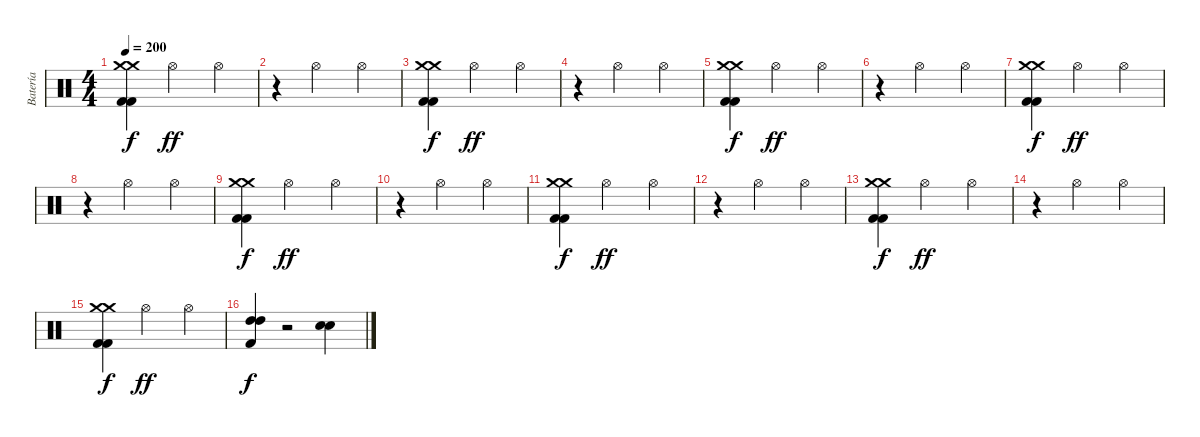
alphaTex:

\track ("Batería" "Batería") {instrument percussion}
\staff {score}
\articulation defaults
\ts (4 4)
\tempo 200
\clef neutral
\ks c
("Crash medium (hit)" "Crash medium (hit)" "Kick (hit) 2" "Kick (hit) 2").4{dy f} "Hi-Hat (open)".2{dy ff} "Hi-Hat (open)".4 |
r.4 "Hi-Hat (open)".2 "Hi-Hat (open)".4 |
("Crash medium (hit)" "Crash medium (hit)" "Kick (hit) 2" "Kick (hit) 2").4{dy f} "Hi-Hat (open)".2{dy ff} "Hi-Hat (open)".4 |
r.4 "Hi-Hat (open)".2 "Hi-Hat (open)".4 |
("Crash medium (hit)" "Crash medium (hit)" "Kick (hit) 2" "Kick (hit) 2").4{dy f} "Hi-Hat (open)".2{dy ff} "Hi-Hat (open)".4 |
r.4 "Hi-Hat (open)".2 "Hi-Hat (open)".4 |
("Crash medium (hit)" "Crash medium (hit)" "Kick (hit) 2" "Kick (hit) 2").4{dy f} "Hi-Hat (open)".2{dy ff} "Hi-Hat (open)".4 |
r.4 "Hi-Hat (open)".2 "Hi-Hat (open)".4 |
("Crash medium (hit)" "Crash medium (hit)" "Kick (hit) 2" "Kick (hit) 2").4{dy f} "Hi-Hat (open)".2{dy ff} "Hi-Hat (open)".4 |
r.4 "Hi-Hat (open)".2 "Hi-Hat (open)".4 |
("Crash medium (hit)" "Crash medium (hit)" "Kick (hit) 2" "Kick (hit) 2").4{dy f} "Hi-Hat (open)".2{dy ff} "Hi-Hat (open)".4 |
r.4 "Hi-Hat (open)".2 "Hi-Hat (open)".4 |
("Crash medium (hit)" "Crash medium (hit)" "Kick (hit) 2" "Kick (hit) 2").4{dy f} "Hi-Hat (open)".2{dy ff} "Hi-Hat (open)".4 |
r.4 "Hi-Hat (open)".2 "Hi-Hat (open)".4 |
("Crash medium (hit)" "Crash medium (hit)" "Kick (hit) 2" "Kick (hit) 2").4{dy f} "Hi-Hat (open)".2{dy ff} "Hi-Hat (open)".4 |
("High Tom (hit)" "High Tom (hit)" "Kick (hit) 2").4{dy f} r.2 ("Electric Snare (hit)" "Electric Snare (hit)").4
